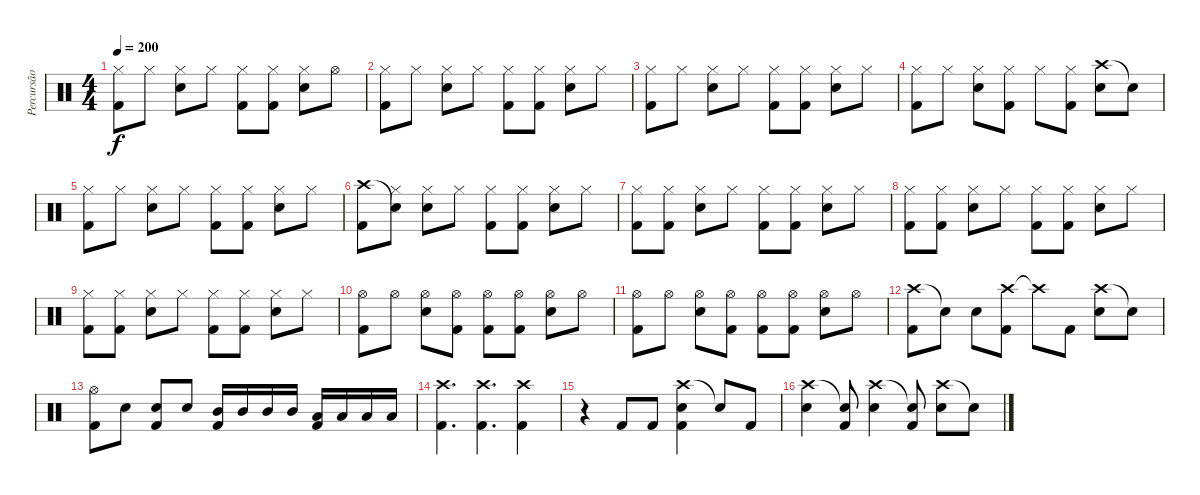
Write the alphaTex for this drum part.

\track ("Percursão" "Percursão") {instrument percussion}
\staff {score}
\articulation defaults
\ts (4 4)
\tempo 200
\clef neutral
\ks c
("Hi-Hat (closed)" "Kick (hit) 2").8{dy f} "Hi-Hat (closed)".8 ("Hi-Hat (closed)" "Electric Snare (hit)").8 "Hi-Hat (closed)".8 ("Hi-Hat (closed)" "Kick (hit) 2").8 ("Hi-Hat (closed)" "Kick (hit) 2").8 ("Hi-Hat (closed)" "Electric Snare (hit)").8 "Hi-Hat (open)".8 |
("Hi-Hat (closed)" "Kick (hit) 2").8 "Hi-Hat (closed)".8 ("Hi-Hat (closed)" "Electric Snare (hit)").8 "Hi-Hat (closed)".8 ("Hi-Hat (closed)" "Kick (hit) 2").8 ("Hi-Hat (closed)" "Kick (hit) 2").8 ("Hi-Hat (closed)" "Electric Snare (hit)").8 "Hi-Hat (closed)".8 |
("Hi-Hat (closed)" "Kick (hit) 2").8 "Hi-Hat (closed)".8 ("Hi-Hat (closed)" "Electric Snare (hit)").8 "Hi-Hat (closed)".8 ("Hi-Hat (closed)" "Kick (hit) 2").8 ("Hi-Hat (closed)" "Kick (hit) 2").8 ("Hi-Hat (closed)" "Electric Snare (hit)").8 "Hi-Hat (closed)".8 |
("Hi-Hat (closed)" "Kick (hit) 2").8 "Hi-Hat (closed)".8 ("Hi-Hat (closed)" "Electric Snare (hit)").8 ("Hi-Hat (closed)" "Kick (hit) 2").8 "Hi-Hat (closed)".8 ("Hi-Hat (closed)" "Kick (hit) 2").8 ("Crash high (hit)" "Electric Snare (hit)").8 "Snare (hit)"{t}.8 |
("Hi-Hat (closed)" "Kick (hit) 2").8 "Hi-Hat (closed)".8 ("Hi-Hat (closed)" "Electric Snare (hit)").8 "Hi-Hat (closed)".8 ("Hi-Hat (closed)" "Kick (hit) 2").8 ("Hi-Hat (closed)" "Kick (hit) 2").8 ("Hi-Hat (closed)" "Electric Snare (hit)").8 "Hi-Hat (closed)".8 |
("Crash high (hit)" "Kick (hit) 2").8 ("Snare (hit)"{t} "Hi-Hat (closed)").8 ("Hi-Hat (closed)" "Electric Snare (hit)").8 "Hi-Hat (closed)".8 ("Hi-Hat (closed)" "Kick (hit) 2").8 ("Hi-Hat (closed)" "Kick (hit) 2").8 ("Hi-Hat (closed)" "Electric Snare (hit)").8 "Hi-Hat (closed)".8 |
("Hi-Hat (closed)" "Kick (hit) 2").8 ("Hi-Hat (closed)" "Kick (hit) 2").8 ("Hi-Hat (closed)" "Electric Snare (hit)").8 "Hi-Hat (closed)".8 ("Hi-Hat (closed)" "Kick (hit) 2").8 ("Hi-Hat (closed)" "Kick (hit) 2").8 ("Hi-Hat (closed)" "Electric Snare (hit)").8 "Hi-Hat (closed)".8 |
("Hi-Hat (closed)" "Kick (hit) 2").8 ("Hi-Hat (closed)" "Kick (hit) 2").8 ("Hi-Hat (closed)" "Electric Snare (hit)").8 "Hi-Hat (closed)".8 ("Hi-Hat (closed)" "Kick (hit) 2").8 ("Hi-Hat (closed)" "Kick (hit) 2").8 ("Hi-Hat (closed)" "Electric Snare (hit)").8 "Hi-Hat (closed)".8 |
("Hi-Hat (closed)" "Kick (hit) 2").8 ("Hi-Hat (closed)" "Kick (hit) 2").8 ("Hi-Hat (closed)" "Electric Snare (hit)").8 "Hi-Hat (closed)".8 ("Hi-Hat (closed)" "Kick (hit) 2").8 ("Hi-Hat (closed)" "Kick (hit) 2").8 ("Hi-Hat (closed)" "Electric Snare (hit)").8 "Hi-Hat (closed)".8 |
("Hi-Hat (open)" "Kick (hit) 2").8 "Hi-Hat (open)".8 ("Hi-Hat (open)" "Electric Snare (hit)").8 ("Hi-Hat (open)" "Kick (hit) 2").8 ("Hi-Hat (open)" "Kick (hit) 2").8 ("Hi-Hat (open)" "Kick (hit) 2").8 ("Hi-Hat (open)" "Electric Snare (hit)").8 "Hi-Hat (open)".8 |
("Hi-Hat (open)" "Kick (hit) 2").8 "Hi-Hat (open)".8 ("Hi-Hat (open)" "Electric Snare (hit)").8 ("Hi-Hat (open)" "Kick (hit) 2").8 ("Hi-Hat (open)" "Kick (hit) 2").8 ("Hi-Hat (open)" "Kick (hit) 2").8 ("Hi-Hat (open)" "Electric Snare (hit)").8 "Hi-Hat (open)".8 |
("Crash high (hit)" "Kick (hit) 2").8 "Snare (hit)"{t}.8 "Electric Snare (hit)".8 ("Crash high (hit)" "Kick (hit) 2").8 "Crash high (hit)"{t}.8 "Kick (hit) 2".8 ("Crash high (hit)" "Electric Snare (hit)").8 "Snare (hit)"{t}.8 |
("Hi-Hat (open)" "Kick (hit) 2").8 "Electric Snare (hit)".8 ("Electric Snare (hit)" "Kick (hit) 2").8 "Electric Snare (hit)".8 ("Mid Tom (hit)" "Kick (hit) 2").16 "Mid Tom (hit)".16 "Mid Tom (hit)".16 "Mid Tom (hit)".16 ("Low Tom (hit)" "Kick (hit) 2").16 "Low Tom (hit)".16 "Low Tom (hit)".16 "Low Tom (hit)".16 |
("Crash high (hit)" "Kick (hit) 2").4{d} ("Crash high (hit)" "Kick (hit) 2").4{d} ("Crash high (hit)" "Kick (hit) 2").4 |
r.4 "Kick (hit) 2".8 "Kick (hit) 2".8 ("Crash high (hit)" "Electric Snare (hit)" "Kick (hit) 2").4 "Snare (hit)"{t}.8 "Kick (hit) 2".8 |
("Crash high (hit)" "Electric Snare (hit)").4 ("Snare (hit)"{t} "Kick (hit) 2").8 ("Crash high (hit)" "Electric Snare (hit)").4 ("Snare (hit)"{t} "Kick (hit) 2").8 ("Crash high (hit)" "Electric Snare (hit)").8 "Snare (hit)"{t}.8
